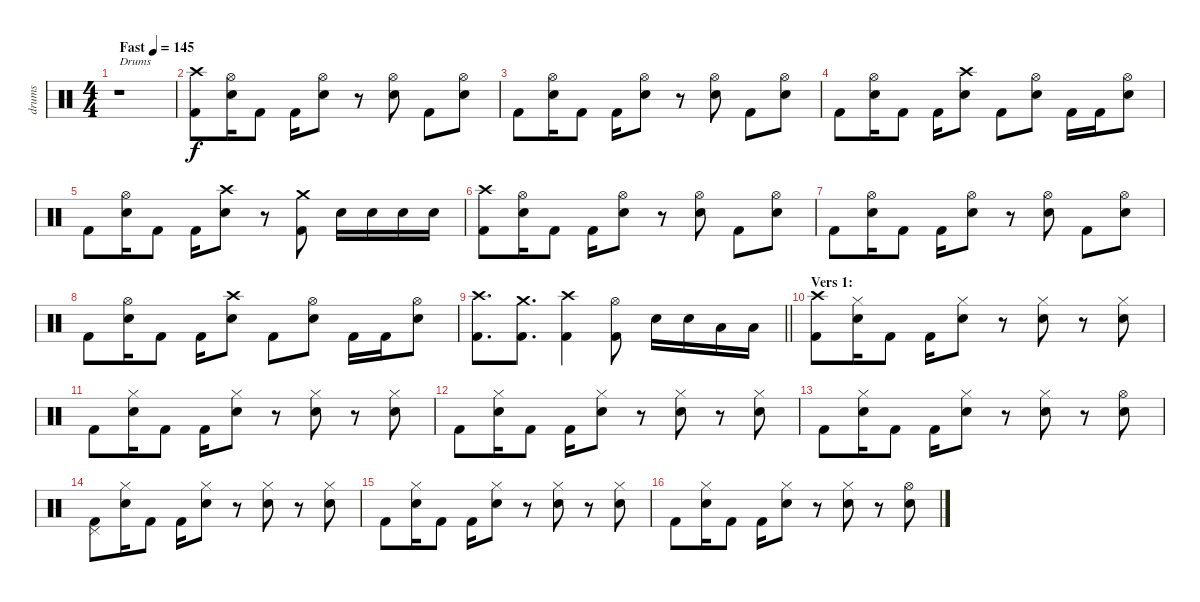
\track ("drums" "drums") {instrument percussion}
\staff {score}
\articulation defaults
\ts (4 4)
\tempo (145 "Fast")
\clef neutral
\ks c
r.1{txt "Drums" dy f} |
("Crash high (hit)" "Kick (hit) 2").8 ("Hi-Hat (open)" "Electric Snare (hit)").16 "Kick (hit) 2".8 "Kick (hit) 2".16 ("Hi-Hat (open)" "Electric Snare (hit)").8 r.8 ("Hi-Hat (open)" "Electric Snare (hit)").8 "Kick (hit) 2".8 ("Hi-Hat (open)" "Electric Snare (hit)").8 |
"Kick (hit) 2".8 ("Hi-Hat (open)" "Electric Snare (hit)").16 "Kick (hit) 2".8 "Kick (hit) 2".16 ("Hi-Hat (open)" "Electric Snare (hit)").8 r.8 ("Hi-Hat (open)" "Electric Snare (hit)").8 "Kick (hit) 2".8 ("Hi-Hat (open)" "Electric Snare (hit)").8 |
"Kick (hit) 2".8 ("Hi-Hat (open)" "Electric Snare (hit)").16 "Kick (hit) 2".8 "Kick (hit) 2".16 ("Crash high (hit)" "Electric Snare (hit)").8 "Kick (hit) 2".8 ("Hi-Hat (open)" "Electric Snare (hit)").8 "Kick (hit) 2".16 "Kick (hit) 2".16 ("Hi-Hat (open)" "Electric Snare (hit)").8 |
"Kick (hit) 2".8 ("Hi-Hat (open)" "Electric Snare (hit)").16 "Kick (hit) 2".8 "Kick (hit) 2".16 ("Crash high (hit)" "Electric Snare (hit)").8 r.8 ("Crash medium (hit)" "Kick (hit) 2").8 "Electric Snare (hit)".16 "Electric Snare (hit)".16 "Electric Snare (hit)".16 "Electric Snare (hit)".16 |
("Crash high (hit)" "Kick (hit) 2").8 ("Hi-Hat (open)" "Electric Snare (hit)").16 "Kick (hit) 2".8 "Kick (hit) 2".16 ("Hi-Hat (open)" "Electric Snare (hit)").8 r.8 ("Hi-Hat (open)" "Electric Snare (hit)").8 "Kick (hit) 2".8 ("Hi-Hat (open)" "Electric Snare (hit)").8 |
"Kick (hit) 2".8 ("Hi-Hat (open)" "Electric Snare (hit)").16 "Kick (hit) 2".8 "Kick (hit) 2".16 ("Hi-Hat (open)" "Electric Snare (hit)").8 r.8 ("Hi-Hat (open)" "Electric Snare (hit)").8 "Kick (hit) 2".8 ("Hi-Hat (open)" "Electric Snare (hit)").8 |
"Kick (hit) 2".8 ("Hi-Hat (open)" "Electric Snare (hit)").16 "Kick (hit) 2".8 "Kick (hit) 2".16 ("Crash high (hit)" "Electric Snare (hit)").8 "Kick (hit) 2".8 ("Hi-Hat (open)" "Electric Snare (hit)").8 "Kick (hit) 2".16 "Kick (hit) 2".16 ("Hi-Hat (open)" "Electric Snare (hit)").8 |
\barLineRight lightlight
("Crash high (hit)" "Kick (hit) 2").8{d} ("Crash medium (hit)" "Kick (hit) 2").8{d} ("Crash high (hit)" "Kick (hit) 2").4 ("Hi-Hat (open)" "Kick (hit) 2").8 "Electric Snare (hit)".16 "Electric Snare (hit)".16 "Low Tom (hit)".16 "Low Tom (hit)".16 |
\section ("" "Vers 1:")
("Crash high (hit)" "Kick (hit) 2").8 ("Hi-Hat (closed)" "Electric Snare (hit)").16 "Kick (hit) 2".8 "Kick (hit) 2".16 ("Hi-Hat (closed)" "Electric Snare (hit)").8 r.8 ("Hi-Hat (closed)" "Electric Snare (hit)").8 r.8 ("Hi-Hat (closed)" "Electric Snare (hit)").8 |
"Kick (hit) 2".8 ("Hi-Hat (closed)" "Electric Snare (hit)").16 "Kick (hit) 2".8 "Kick (hit) 2".16 ("Hi-Hat (closed)" "Electric Snare (hit)").8 r.8 ("Hi-Hat (closed)" "Electric Snare (hit)").8 r.8 ("Hi-Hat (closed)" "Electric Snare (hit)").8 |
"Kick (hit) 2".8 ("Hi-Hat (closed)" "Electric Snare (hit)").16 "Kick (hit) 2".8 "Kick (hit) 2".16 ("Hi-Hat (closed)" "Electric Snare (hit)").8 r.8 ("Hi-Hat (closed)" "Electric Snare (hit)").8 r.8 ("Hi-Hat (closed)" "Electric Snare (hit)").8 |
"Kick (hit) 2".8 ("Hi-Hat (closed)" "Electric Snare (hit)").16 "Kick (hit) 2".8 "Kick (hit) 2".16 ("Hi-Hat (closed)" "Electric Snare (hit)").8 r.8 ("Hi-Hat (closed)" "Electric Snare (hit)").8 r.8 ("Hi-Hat (open)" "Electric Snare (hit)").8 |
("Pedal Hi-Hat (hit)" "Kick (hit) 2").8 ("Hi-Hat (closed)" "Electric Snare (hit)").16 "Kick (hit) 2".8 "Kick (hit) 2".16 ("Hi-Hat (closed)" "Electric Snare (hit)").8 r.8 ("Hi-Hat (closed)" "Electric Snare (hit)").8 r.8 ("Hi-Hat (closed)" "Electric Snare (hit)").8 |
"Kick (hit) 2".8 ("Hi-Hat (closed)" "Electric Snare (hit)").16 "Kick (hit) 2".8 "Kick (hit) 2".16 ("Hi-Hat (closed)" "Electric Snare (hit)").8 r.8 ("Hi-Hat (closed)" "Electric Snare (hit)").8 r.8 ("Hi-Hat (closed)" "Electric Snare (hit)").8 |
"Kick (hit) 2".8 ("Hi-Hat (closed)" "Electric Snare (hit)").16 "Kick (hit) 2".8 "Kick (hit) 2".16 ("Hi-Hat (closed)" "Electric Snare (hit)").8 r.8 ("Hi-Hat (closed)" "Electric Snare (hit)").8 r.8 ("Hi-Hat (open)" "Electric Snare (hit)").8
